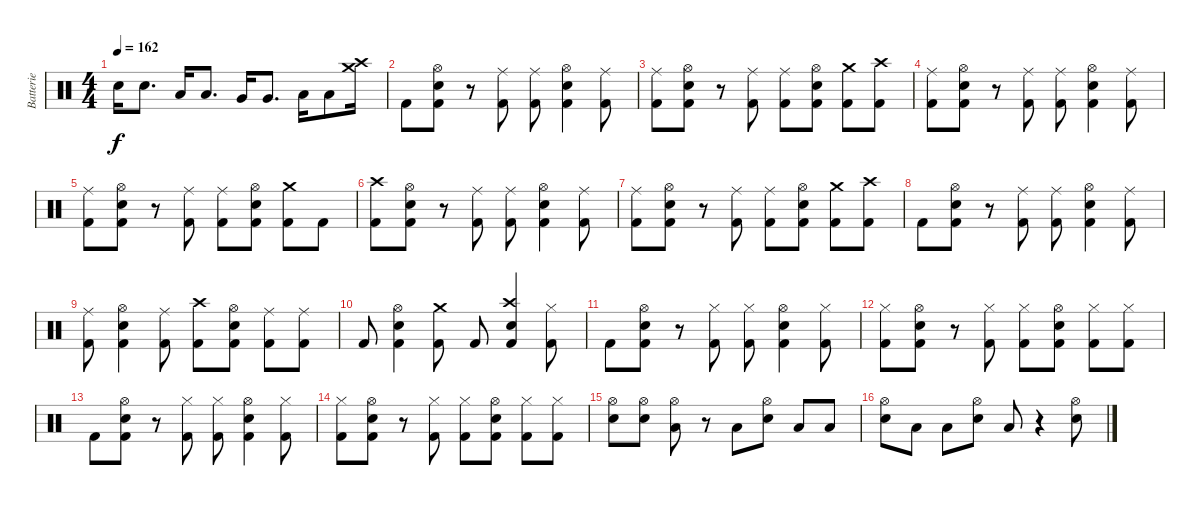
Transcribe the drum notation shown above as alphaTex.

\track ("Batterie" "Batterie") {instrument percussion}
\staff {score}
\articulation defaults
\ts (4 4)
\tempo 162
\clef neutral
\ks c "Snare (hit) 2".16{dy f} "Snare (hit) 2".8{d} "Low Tom (hit)".16 "Low Tom (hit)".8{d} "Very Low Tom (hit)".16 "Very Low Tom (hit)".8{d} "Low Floor Tom (hit)".16 "Low Floor Tom (hit)".8
("Crash medium (hit)" "Crash high (hit)").16 |
"Kick (hit) 2".8 ("Kick (hit) 2" "Snare (hit) 2" "Hi-Hat (open)").8 r.8 ("Kick (hit) 2" "Ride (middle)").8 ("Kick (hit) 2" "Ride (middle)").8 ("Kick (hit) 2" "Snare (hit) 2" "Hi-Hat (open)").4 ("Kick (hit) 2" "Ride (middle)").8 |
("Kick (hit) 2" "Ride (middle)").8 ("Kick (hit) 2" "Snare (hit) 2" "Hi-Hat (open)").8 r.8 ("Kick (hit) 2" "Ride (middle)").8 ("Kick (hit) 2" "Ride (middle)").8 ("Kick (hit) 2" "Snare (hit) 2" "Hi-Hat (open)").8 ("Kick (hit) 2" "Crash medium (hit)").8 ("Kick (hit) 2" "Crash high (hit)").8 |
("Kick (hit) 2" "Ride (middle)").8 ("Kick (hit) 2" "Snare (hit) 2" "Hi-Hat (open)").8 r.8 ("Kick (hit) 2" "Ride (middle)").8 ("Kick (hit) 2" "Ride (middle)").8 ("Kick (hit) 2" "Snare (hit) 2" "Hi-Hat (open)").4 ("Kick (hit) 2" "Ride (middle)").8 |
("Kick (hit) 2" "Ride (middle)").8 ("Kick (hit) 2" "Snare (hit) 2" "Hi-Hat (open)").8 r.8 ("Kick (hit) 2" "Ride (middle)").8 ("Kick (hit) 2" "Ride (middle)").8 ("Kick (hit) 2" "Snare (hit) 2" "Hi-Hat (open)").8 ("Kick (hit) 2" "Crash medium (hit)").8 "Kick (hit) 2".8 |
("Kick (hit) 2" "Crash high (hit)").8 ("Kick (hit) 2" "Snare (hit) 2" "Hi-Hat (open)").8 r.8 ("Kick (hit) 2" "Ride (middle)").8 ("Kick (hit) 2" "Ride (middle)").8 ("Kick (hit) 2" "Snare (hit) 2" "Hi-Hat (open)").4 ("Kick (hit) 2" "Ride (middle)").8 |
("Kick (hit) 2" "Ride (middle)").8 ("Kick (hit) 2" "Snare (hit) 2" "Hi-Hat (open)").8 r.8 ("Kick (hit) 2" "Ride (middle)").8 ("Kick (hit) 2" "Ride (middle)").8 ("Kick (hit) 2" "Snare (hit) 2" "Hi-Hat (open)").8 ("Kick (hit) 2" "Crash medium (hit)").8 ("Kick (hit) 2" "Crash high (hit)").8 |
"Kick (hit) 2".8 ("Kick (hit) 2" "Snare (hit) 2" "Hi-Hat (open)").8 r.8 ("Kick (hit) 2" "Ride (middle)").8 ("Kick (hit) 2" "Ride (middle)").8 ("Kick (hit) 2" "Snare (hit) 2" "Hi-Hat (open)").4 ("Kick (hit) 2" "Ride (middle)").8 |
("Kick (hit) 2" "Ride (middle)").8 ("Kick (hit) 2" "Snare (hit) 2" "Hi-Hat (open)").4 ("Kick (hit) 2" "Ride (middle)").8 ("Kick (hit) 2" "Crash high (hit)").8 ("Kick (hit) 2" "Snare (hit) 2" "Hi-Hat (open)").8 ("Kick (hit) 2" "Ride (middle)").8 ("Kick (hit) 2" "Ride (middle)").8 |
"Kick (hit) 2".8 ("Kick (hit) 2" "Snare (hit) 2" "Hi-Hat (open)").4 ("Kick (hit) 2" "Crash medium (hit)").8 "Kick (hit) 2".8 ("Kick (hit) 2" "Snare (hit) 2" "Crash high (hit)").4 ("Kick (hit) 2" "Hi-Hat (closed)").8 |
"Kick (hit) 2".8 ("Kick (hit) 2" "Snare (hit) 2" "Hi-Hat (open)").8 r.8 ("Kick (hit) 2" "Hi-Hat (closed)").8 ("Kick (hit) 2" "Hi-Hat (closed)").8 ("Kick (hit) 2" "Snare (hit) 2" "Hi-Hat (open)").4 ("Kick (hit) 2" "Hi-Hat (closed)").8 |
("Kick (hit) 2" "Hi-Hat (closed)").8 ("Kick (hit) 2" "Snare (hit) 2" "Hi-Hat (open)").8 r.8 ("Kick (hit) 2" "Hi-Hat (closed)").8 ("Kick (hit) 2" "Hi-Hat (closed)").8 ("Kick (hit) 2" "Snare (hit) 2" "Hi-Hat (open)").8 ("Kick (hit) 2" "Hi-Hat (closed)").8 ("Kick (hit) 2" "Hi-Hat (closed)").8 |
"Kick (hit) 2".8 ("Kick (hit) 2" "Snare (hit) 2" "Hi-Hat (open)").8 r.8 ("Kick (hit) 2" "Hi-Hat (closed)").8 ("Kick (hit) 2" "Hi-Hat (closed)").8 ("Kick (hit) 2" "Snare (hit) 2" "Hi-Hat (open)").4 ("Kick (hit) 2" "Hi-Hat (closed)").8 |
("Kick (hit) 2" "Hi-Hat (closed)").8 ("Kick (hit) 2" "Snare (hit) 2" "Hi-Hat (open)").8 r.8 ("Kick (hit) 2" "Hi-Hat (closed)").8 ("Kick (hit) 2" "Hi-Hat (closed)").8 ("Kick (hit) 2" "Snare (hit) 2" "Hi-Hat (open)").8 ("Kick (hit) 2" "Hi-Hat (closed)").8 ("Kick (hit) 2" "Hi-Hat (closed)").8 |
("Snare (hit) 2" "Hi-Hat (open)").8 ("Snare (hit) 2" "Hi-Hat (open)").8 ("Low Tom (hit)" "Hi-Hat (open)").8 r.8 "Low Tom (hit)".8 ("Snare (hit) 2" "Hi-Hat (open)").8 "Low Tom (hit)".8 "Low Tom (hit)".8 |
("Snare (hit) 2" "Hi-Hat (open)").8 "Low Tom (hit)".8 "Low Tom (hit)".8 ("Snare (hit) 2" "Hi-Hat (open)").8 "Low Tom (hit)".8 r.4 ("Snare (hit) 2" "Hi-Hat (open)").8
